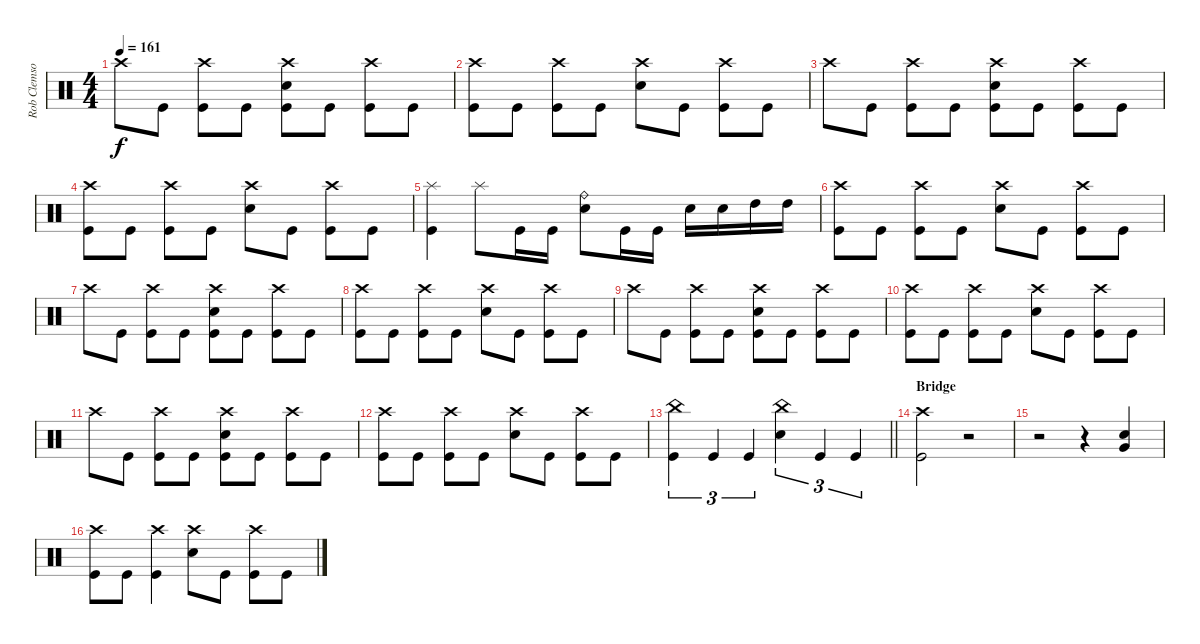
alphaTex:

\track ("Rob Clemson (Drums)" "Rob Clemso") {instrument percussion}
\staff {score}
\articulation defaults
\ts (4 4)
\tempo 161
\clef neutral
\ks c "Crash high (hit)".8{dy f} "Kick (hit)".8
("Kick (hit)" "Crash high (hit)").8 "Kick (hit)".8 ("Crash high (hit)" "Kick (hit)" "Electric Snare (hit)").8 "Kick (hit)".8 ("Kick (hit)" "Crash high (hit)").8 "Kick (hit)".8 |
("Kick (hit)" "Crash high (hit)").8 "Kick (hit)".8 ("Kick (hit)" "Crash high (hit)").8 "Kick (hit)".8 ("Electric Snare (hit)" "Crash high (hit)").8 "Kick (hit)".8 ("Kick (hit)" "Crash high (hit)").8 "Kick (hit)".8 |
"Crash high (hit)".8 "Kick (hit)".8 ("Kick (hit)" "Crash high (hit)").8 "Kick (hit)".8 ("Crash high (hit)" "Kick (hit)" "Electric Snare (hit)").8 "Kick (hit)".8 ("Kick (hit)" "Crash high (hit)").8 "Kick (hit)".8 |
("Kick (hit)" "Crash high (hit)").8 "Kick (hit)".8 ("Kick (hit)" "Crash high (hit)").8 "Kick (hit)".8 ("Electric Snare (hit)" "Crash high (hit)").8 "Kick (hit)".8 ("Kick (hit)" "Crash high (hit)").8 "Kick (hit)".8 |
("Splash (hit)" "Kick (hit)").4 "Splash (hit)".8 "Kick (hit)".16 "Kick (hit)".16 ("Electric Snare (hit)" "Ride (bell)").8 "Kick (hit)".16 "Kick (hit)".16 "Electric Snare (hit)".16 "Electric Snare (hit)".16 "High Tom (hit)".16 "High Tom (hit)".16 |
("Kick (hit)" "Crash high (hit)").8 "Kick (hit)".8 ("Kick (hit)" "Crash high (hit)").8 "Kick (hit)".8 ("Electric Snare (hit)" "Crash high (hit)").8 "Kick (hit)".8 ("Kick (hit)" "Crash high (hit)").8 "Kick (hit)".8 |
"Crash high (hit)".8 "Kick (hit)".8 ("Kick (hit)" "Crash high (hit)").8 "Kick (hit)".8 ("Crash high (hit)" "Kick (hit)" "Electric Snare (hit)").8 "Kick (hit)".8 ("Kick (hit)" "Crash high (hit)").8 "Kick (hit)".8 |
("Kick (hit)" "Crash high (hit)").8 "Kick (hit)".8 ("Kick (hit)" "Crash high (hit)").8 "Kick (hit)".8 ("Electric Snare (hit)" "Crash high (hit)").8 "Kick (hit)".8 ("Kick (hit)" "Crash high (hit)").8 "Kick (hit)".8 |
"Crash high (hit)".8 "Kick (hit)".8 ("Kick (hit)" "Crash high (hit)").8 "Kick (hit)".8 ("Crash high (hit)" "Kick (hit)" "Electric Snare (hit)").8 "Kick (hit)".8 ("Kick (hit)" "Crash high (hit)").8 "Kick (hit)".8 |
("Kick (hit)" "Crash high (hit)").8 "Kick (hit)".8 ("Kick (hit)" "Crash high (hit)").8 "Kick (hit)".8 ("Electric Snare (hit)" "Crash high (hit)").8 "Kick (hit)".8 ("Kick (hit)" "Crash high (hit)").8 "Kick (hit)".8 |
"Crash high (hit)".8 "Kick (hit)".8 ("Kick (hit)" "Crash high (hit)").8 "Kick (hit)".8 ("Crash high (hit)" "Kick (hit)" "Electric Snare (hit)").8 "Kick (hit)".8 ("Kick (hit)" "Crash high (hit)").8 "Kick (hit)".8 |
("Kick (hit)" "Crash high (hit)").8 "Kick (hit)".8 ("Kick (hit)" "Crash high (hit)").8 "Kick (hit)".8 ("Electric Snare (hit)" "Crash high (hit)").8 "Kick (hit)".8 ("Kick (hit)" "Crash high (hit)").8 "Kick (hit)".8 |
\barLineRight lightlight
("Kick (hit)" "China (hit)").4{tu (3 2)} "Kick (hit)".4{tu (3 2)} "Kick (hit)".4{tu (3 2)} ("Electric Snare (hit)" "China (hit)").4{tu (3 2)} "Kick (hit)".4{tu (3 2)} "Kick (hit)".4{tu (3 2)} |
\section ("" "Bridge")
("Crash high (hit)" "Kick (hit)").2 r.2 |
r.2 r.4 ("Very Low Tom (hit)" "Electric Snare (hit)").4 |
("Crash high (hit)" "Kick (hit)").8 "Kick (hit)".8 ("Crash high (hit)" "Kick (hit)").4 ("Crash high (hit)" "Electric Snare (hit)").8 "Kick (hit)".8 ("Kick (hit)" "Crash high (hit)").8 "Kick (hit)".8
